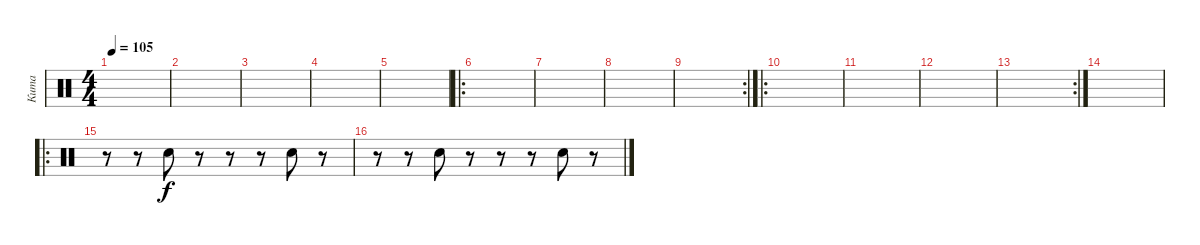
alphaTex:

\track ("Кита" "Кита") {instrument percussion}
\staff {score}
\articulation defaults
\ts (4 4)
\tempo 105
\clef neutral
\ks c
|
|
|
|
|
\ro
|
|
|
\rc 2
|
\ro
|
|
|
\rc 2
|
|
\ro
r.8 r.8 "Hand Clap (hit)".8 r.8 r.8 r.8 "Hand Clap (hit)".8 r.8 |
r.8 r.8 "Hand Clap (hit)".8 r.8 r.8 r.8 "Hand Clap (hit)".8 r.8
